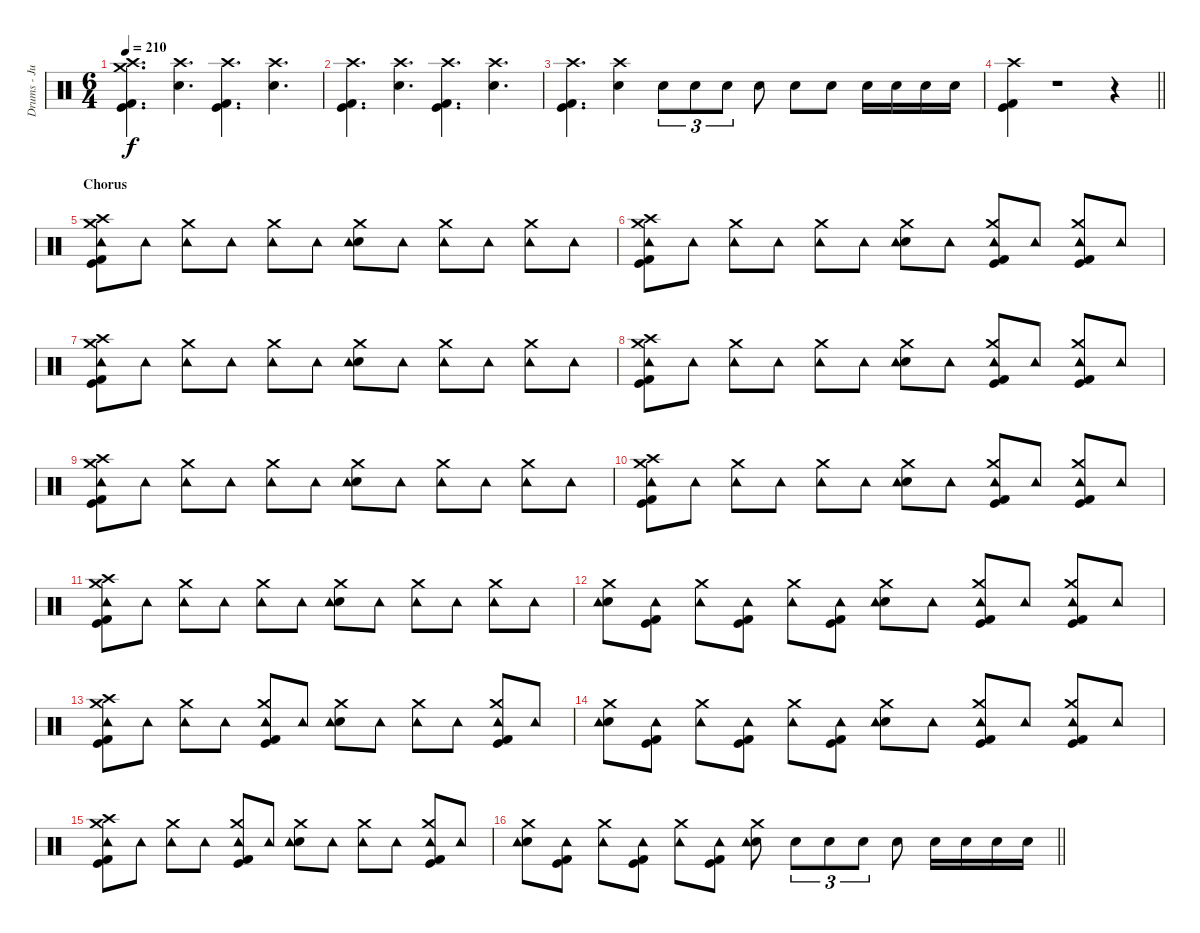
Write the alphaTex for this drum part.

\track ("Drums - Justin Foley" "Drums - Ju") {instrument percussion}
\staff {score}
\articulation defaults
\ts (6 4)
\tempo 210
\clef neutral
\ks c
("Crash high (hit)" "Kick (hit) 2" "Kick (hit)" "Crash medium (hit)").4{d dy f} ("Crash high (hit)" "Snare (hit) 2").4{d} ("Crash high (hit)" "Kick (hit) 2" "Kick (hit)").4{d} ("Crash high (hit)" "Snare (hit) 2").4{d} |
("Crash high (hit)" "Kick (hit) 2" "Kick (hit)").4{d} ("Crash high (hit)" "Snare (hit) 2").4{d} ("Crash high (hit)" "Kick (hit) 2" "Kick (hit)").4{d} ("Crash high (hit)" "Snare (hit) 2").4{d} |
("Crash high (hit)" "Kick (hit) 2" "Kick (hit)").4{d} ("Crash high (hit)" "Snare (hit) 2").4 "Snare (hit) 2".8{tu (3 2)} "Snare (hit) 2".8{tu (3 2)} "Snare (hit) 2".8{tu (3 2)} "Snare (hit) 2".8 "Snare (hit) 2".8 "Snare (hit) 2".8 "Snare (hit) 2".16 "Snare (hit) 2".16 "Snare (hit) 2".16 "Snare (hit) 2".16 |
\barLineRight lightlight
("Crash high (hit)" "Kick (hit) 2" "Kick (hit)").4 r.1{volume 0} r.4 |
\section ("" "Chorus")
("Crash medium (hit)" "Kick (hit) 2" "Kick (hit)" "Crash high (hit)" "Tambourine (hit)").8{volume 13} "Tambourine (hit)".8 ("Crash medium (hit)" "Tambourine (hit)").8 "Tambourine (hit)".8 ("Crash medium (hit)" "Tambourine (hit)").8 "Tambourine (hit)".8 ("Crash medium (hit)" "Snare (hit) 2" "Tambourine (hit)").8 "Tambourine (hit)".8 ("Crash medium (hit)" "Tambourine (hit)").8 "Tambourine (hit)".8 ("Crash medium (hit)" "Tambourine (hit)").8 "Tambourine (hit)".8 |
("Crash medium (hit)" "Kick (hit) 2" "Kick (hit)" "Crash high (hit)" "Tambourine (hit)").8{volume 13} "Tambourine (hit)".8 ("Crash medium (hit)" "Tambourine (hit)").8 "Tambourine (hit)".8 ("Crash medium (hit)" "Tambourine (hit)").8 "Tambourine (hit)".8 ("Crash medium (hit)" "Snare (hit) 2" "Tambourine (hit)").8 "Tambourine (hit)".8 ("Crash medium (hit)" "Kick (hit) 2" "Kick (hit)" "Tambourine (hit)").8 "Tambourine (hit)".8 ("Crash medium (hit)" "Kick (hit) 2" "Kick (hit)" "Tambourine (hit)").8 "Tambourine (hit)".8 |
("Crash medium (hit)" "Kick (hit) 2" "Kick (hit)" "Crash high (hit)" "Tambourine (hit)").8{volume 13} "Tambourine (hit)".8 ("Crash medium (hit)" "Tambourine (hit)").8 "Tambourine (hit)".8 ("Crash medium (hit)" "Tambourine (hit)").8 "Tambourine (hit)".8 ("Crash medium (hit)" "Snare (hit) 2" "Tambourine (hit)").8 "Tambourine (hit)".8 ("Crash medium (hit)" "Tambourine (hit)").8 "Tambourine (hit)".8 ("Crash medium (hit)" "Tambourine (hit)").8 "Tambourine (hit)".8 |
("Crash medium (hit)" "Kick (hit) 2" "Kick (hit)" "Crash high (hit)" "Tambourine (hit)").8{volume 13} "Tambourine (hit)".8 ("Crash medium (hit)" "Tambourine (hit)").8 "Tambourine (hit)".8 ("Crash medium (hit)" "Tambourine (hit)").8 "Tambourine (hit)".8 ("Crash medium (hit)" "Snare (hit) 2" "Tambourine (hit)").8 "Tambourine (hit)".8 ("Crash medium (hit)" "Kick (hit) 2" "Kick (hit)" "Tambourine (hit)").8 "Tambourine (hit)".8 ("Crash medium (hit)" "Kick (hit) 2" "Kick (hit)" "Tambourine (hit)").8 "Tambourine (hit)".8 |
("Crash medium (hit)" "Kick (hit) 2" "Kick (hit)" "Crash high (hit)" "Tambourine (hit)").8{volume 13} "Tambourine (hit)".8 ("Crash medium (hit)" "Tambourine (hit)").8 "Tambourine (hit)".8 ("Crash medium (hit)" "Tambourine (hit)").8 "Tambourine (hit)".8 ("Crash medium (hit)" "Snare (hit) 2" "Tambourine (hit)").8 "Tambourine (hit)".8 ("Crash medium (hit)" "Tambourine (hit)").8 "Tambourine (hit)".8 ("Crash medium (hit)" "Tambourine (hit)").8 "Tambourine (hit)".8 |
("Crash medium (hit)" "Kick (hit) 2" "Kick (hit)" "Crash high (hit)" "Tambourine (hit)").8{volume 13} "Tambourine (hit)".8 ("Crash medium (hit)" "Tambourine (hit)").8 "Tambourine (hit)".8 ("Crash medium (hit)" "Tambourine (hit)").8 "Tambourine (hit)".8 ("Crash medium (hit)" "Snare (hit) 2" "Tambourine (hit)").8 "Tambourine (hit)".8 ("Crash medium (hit)" "Kick (hit) 2" "Kick (hit)" "Tambourine (hit)").8 "Tambourine (hit)".8 ("Crash medium (hit)" "Kick (hit) 2" "Kick (hit)" "Tambourine (hit)").8 "Tambourine (hit)".8 |
("Crash medium (hit)" "Kick (hit) 2" "Kick (hit)" "Crash high (hit)" "Tambourine (hit)").8{volume 13} "Tambourine (hit)".8 ("Crash medium (hit)" "Tambourine (hit)").8 "Tambourine (hit)".8 ("Crash medium (hit)" "Tambourine (hit)").8 "Tambourine (hit)".8 ("Crash medium (hit)" "Snare (hit) 2" "Tambourine (hit)").8 "Tambourine (hit)".8 ("Crash medium (hit)" "Tambourine (hit)").8 "Tambourine (hit)".8 ("Crash medium (hit)" "Tambourine (hit)").8 "Tambourine (hit)".8 |
("Crash medium (hit)" "Snare (hit) 2" "Tambourine (hit)").8 ("Kick (hit) 2" "Kick (hit)" "Tambourine (hit)").8 ("Crash medium (hit)" "Tambourine (hit)").8 ("Kick (hit) 2" "Kick (hit)" "Tambourine (hit)").8 ("Crash medium (hit)" "Tambourine (hit)").8 ("Kick (hit) 2" "Kick (hit)" "Tambourine (hit)").8 ("Crash medium (hit)" "Snare (hit) 2" "Tambourine (hit)").8 "Tambourine (hit)".8 ("Crash medium (hit)" "Kick (hit) 2" "Kick (hit)" "Tambourine (hit)").8 "Tambourine (hit)".8 ("Crash medium (hit)" "Kick (hit) 2" "Kick (hit)" "Tambourine (hit)").8 "Tambourine (hit)".8 |
("Crash medium (hit)" "Kick (hit) 2" "Kick (hit)" "Crash high (hit)" "Tambourine (hit)").8 "Tambourine (hit)".8 ("Crash medium (hit)" "Tambourine (hit)").8 "Tambourine (hit)".8 ("Crash medium (hit)" "Kick (hit) 2" "Kick (hit)" "Tambourine (hit)").8 "Tambourine (hit)".8 ("Crash medium (hit)" "Snare (hit) 2" "Tambourine (hit)").8 "Tambourine (hit)".8 ("Crash medium (hit)" "Tambourine (hit)").8 "Tambourine (hit)".8 ("Crash medium (hit)" "Kick (hit) 2" "Kick (hit)" "Tambourine (hit)").8 "Tambourine (hit)".8 |
("Crash medium (hit)" "Snare (hit) 2" "Tambourine (hit)").8 ("Kick (hit) 2" "Kick (hit)" "Tambourine (hit)").8 ("Crash medium (hit)" "Tambourine (hit)").8 ("Kick (hit) 2" "Kick (hit)" "Tambourine (hit)").8 ("Crash medium (hit)" "Tambourine (hit)").8 ("Kick (hit) 2" "Kick (hit)" "Tambourine (hit)").8 ("Crash medium (hit)" "Snare (hit) 2" "Tambourine (hit)").8 "Tambourine (hit)".8 ("Crash medium (hit)" "Kick (hit) 2" "Kick (hit)" "Tambourine (hit)").8 "Tambourine (hit)".8 ("Crash medium (hit)" "Kick (hit) 2" "Kick (hit)" "Tambourine (hit)").8 "Tambourine (hit)".8 |
("Crash medium (hit)" "Kick (hit) 2" "Kick (hit)" "Crash high (hit)" "Tambourine (hit)").8 "Tambourine (hit)".8 ("Crash medium (hit)" "Tambourine (hit)").8 "Tambourine (hit)".8 ("Crash medium (hit)" "Kick (hit) 2" "Kick (hit)" "Tambourine (hit)").8 "Tambourine (hit)".8 ("Crash medium (hit)" "Snare (hit) 2" "Tambourine (hit)").8 "Tambourine (hit)".8 ("Crash medium (hit)" "Tambourine (hit)").8 "Tambourine (hit)".8 ("Crash medium (hit)" "Kick (hit) 2" "Kick (hit)" "Tambourine (hit)").8 "Tambourine (hit)".8 |
\barLineRight lightlight
("Crash medium (hit)" "Snare (hit) 2" "Tambourine (hit)").8 ("Kick (hit) 2" "Kick (hit)" "Tambourine (hit)").8 ("Crash medium (hit)" "Tambourine (hit)").8 ("Kick (hit) 2" "Kick (hit)" "Tambourine (hit)").8 ("Crash medium (hit)" "Tambourine (hit)").8 ("Kick (hit) 2" "Kick (hit)" "Tambourine (hit)").8 ("Crash medium (hit)" "Snare (hit) 2" "Tambourine (hit)").8 "Snare (hit) 2".8{tu (3 2)} "Snare (hit) 2".8{tu (3 2)} "Snare (hit) 2".8{tu (3 2)} "Snare (hit) 2".8 "Snare (hit) 2".16 "Snare (hit) 2".16 "Snare (hit) 2".16 "Snare (hit) 2".16
